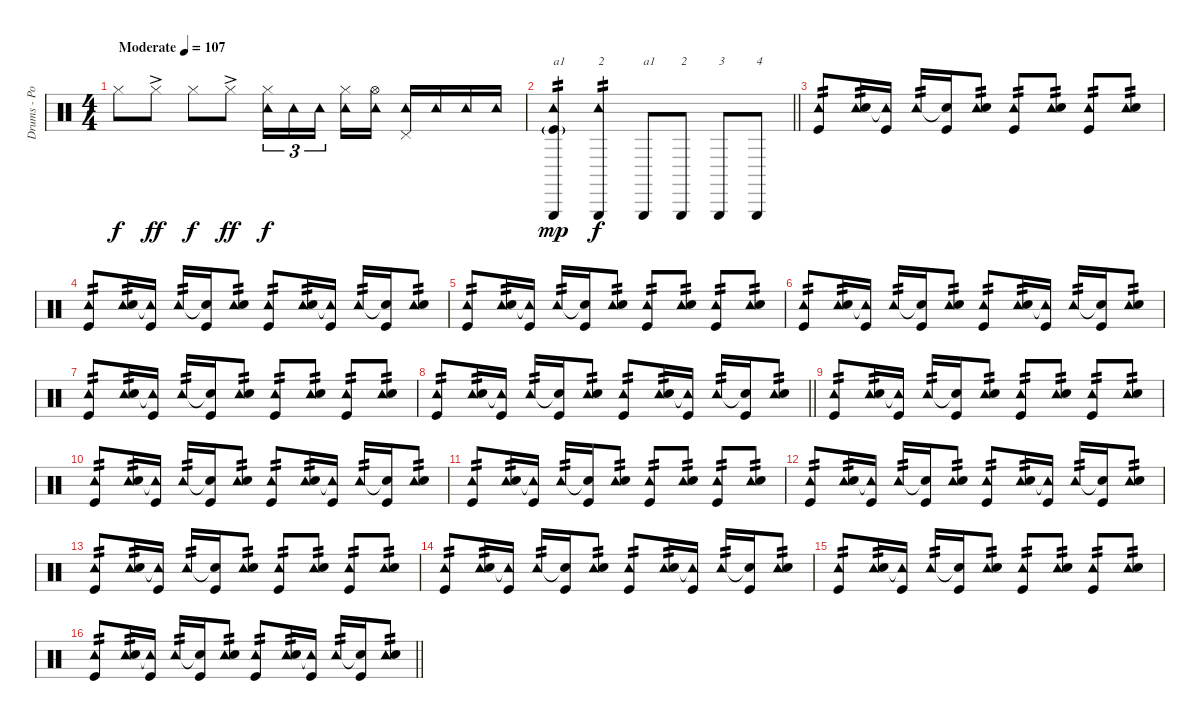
\track ("Drums - Possibly M. Shinoda" "Drums - Po") {instrument percussion}
\staff {score}
\articulation defaults
\ts (4 4)
\tempo (107 "Moderate")
\clef neutral
\ks c "Hi-Hat (closed)".8{dy f} "Hi-Hat (closed)"{ac}.8{dy ff} "Hi-Hat (closed)".8{dy f} "Hi-Hat (closed)"{ac}.8{dy ff}
("Hi-Hat (closed)" "Tambourine (hit)").16{tu (3 2) dy f} "Tambourine (hit)".16{tu (3 2)} "Tambourine (hit)".16{tu (3 2) beam splitsecondary} ("Hi-Hat (closed)" "Tambourine (hit)").16 ("Hi-Hat (open)" "Tambourine (hit)").16 ("Tambourine (hit)" "Pedal Hi-Hat (hit)").16 "Tambourine (hit)".16 "Tambourine (hit)".16 "Tambourine (hit)".16 |
\barLineRight lightlight
("Tambourine (hit)" "Triangle (hit)" "Kick (hit)"{g}).4{txt "a1" tp 2 dy mp} ("Tambourine (hit)" "Triangle (hit)").4{txt "2" tp 2 dy f} "Triangle (hit)".8{txt "a1"} "Triangle (hit)".8{txt "2"} "Triangle (hit)".8{txt "3"} "Triangle (hit)".8{txt "4"} |
("Tambourine (hit)" "Kick (hit)").8{tp 2} ("Tambourine (hit)" "Electric Snare (hit)").16{tp 2} ("Tambourine (hit)"{t} "Kick (hit)").16 "Tambourine (hit)".16{tp 2} ("Snare (hit)"{t} "Kick (hit)").16 ("Tambourine (hit)" "Electric Snare (hit)").8{tp 2} ("Tambourine (hit)" "Kick (hit)").8{tp 2} ("Tambourine (hit)" "Electric Snare (hit)").8{tp 2} ("Tambourine (hit)" "Kick (hit)").8{tp 2} ("Tambourine (hit)" "Electric Snare (hit)").8{tp 2} |
("Tambourine (hit)" "Kick (hit)").8{tp 2} ("Tambourine (hit)" "Electric Snare (hit)").16{tp 2} ("Tambourine (hit)"{t} "Kick (hit)").16 "Tambourine (hit)".16{tp 2} ("Snare (hit)"{t} "Kick (hit)").16 ("Tambourine (hit)" "Electric Snare (hit)").8{tp 2} ("Tambourine (hit)" "Kick (hit)").8{tp 2} ("Tambourine (hit)" "Electric Snare (hit)").16{tp 2} ("Tambourine (hit)"{t} "Kick (hit)").16 "Tambourine (hit)".16{tp 2} ("Snare (hit)"{t} "Kick (hit)").16 ("Tambourine (hit)" "Electric Snare (hit)").8{tp 2} |
("Tambourine (hit)" "Kick (hit)").8{tp 2} ("Tambourine (hit)" "Electric Snare (hit)").16{tp 2} ("Tambourine (hit)"{t} "Kick (hit)").16 "Tambourine (hit)".16{tp 2} ("Snare (hit)"{t} "Kick (hit)").16 ("Tambourine (hit)" "Electric Snare (hit)").8{tp 2} ("Tambourine (hit)" "Kick (hit)").8{tp 2} ("Tambourine (hit)" "Electric Snare (hit)").8{tp 2} ("Tambourine (hit)" "Kick (hit)").8{tp 2} ("Tambourine (hit)" "Electric Snare (hit)").8{tp 2} |
("Tambourine (hit)" "Kick (hit)").8{tp 2} ("Tambourine (hit)" "Electric Snare (hit)").16{tp 2} ("Tambourine (hit)"{t} "Kick (hit)").16 "Tambourine (hit)".16{tp 2} ("Snare (hit)"{t} "Kick (hit)").16 ("Tambourine (hit)" "Electric Snare (hit)").8{tp 2} ("Tambourine (hit)" "Kick (hit)").8{tp 2} ("Tambourine (hit)" "Electric Snare (hit)").16{tp 2} ("Tambourine (hit)"{t} "Kick (hit)").16 "Tambourine (hit)".16{tp 2} ("Snare (hit)"{t} "Kick (hit)").16 ("Tambourine (hit)" "Electric Snare (hit)").8{tp 2} |
("Tambourine (hit)" "Kick (hit)").8{tp 2} ("Tambourine (hit)" "Electric Snare (hit)").16{tp 2} ("Tambourine (hit)"{t} "Kick (hit)").16 "Tambourine (hit)".16{tp 2} ("Snare (hit)"{t} "Kick (hit)").16 ("Tambourine (hit)" "Electric Snare (hit)").8{tp 2} ("Tambourine (hit)" "Kick (hit)").8{tp 2} ("Tambourine (hit)" "Electric Snare (hit)").8{tp 2} ("Tambourine (hit)" "Kick (hit)").8{tp 2} ("Tambourine (hit)" "Electric Snare (hit)").8{tp 2} |
\barLineRight lightlight
("Tambourine (hit)" "Kick (hit)").8{tp 2} ("Tambourine (hit)" "Electric Snare (hit)").16{tp 2} ("Tambourine (hit)"{t} "Kick (hit)").16 "Tambourine (hit)".16{tp 2} ("Snare (hit)"{t} "Kick (hit)").16 ("Tambourine (hit)" "Electric Snare (hit)").8{tp 2} ("Tambourine (hit)" "Kick (hit)").8{tp 2} ("Tambourine (hit)" "Electric Snare (hit)").16{tp 2} ("Tambourine (hit)"{t} "Kick (hit)").16 "Tambourine (hit)".16{tp 2} ("Snare (hit)"{t} "Kick (hit)").16 ("Tambourine (hit)" "Electric Snare (hit)").8{tp 2} |
\section ("" "")
("Tambourine (hit)" "Kick (hit)").8{tp 2} ("Tambourine (hit)" "Electric Snare (hit)").16{tp 2} ("Tambourine (hit)"{t} "Kick (hit)").16 "Tambourine (hit)".16{tp 2} ("Snare (hit)"{t} "Kick (hit)").16 ("Tambourine (hit)" "Electric Snare (hit)").8{tp 2} ("Tambourine (hit)" "Kick (hit)").8{tp 2} ("Tambourine (hit)" "Electric Snare (hit)").8{tp 2} ("Tambourine (hit)" "Kick (hit)").8{tp 2} ("Tambourine (hit)" "Electric Snare (hit)").8{tp 2} |
("Tambourine (hit)" "Kick (hit)").8{tp 2} ("Tambourine (hit)" "Electric Snare (hit)").16{tp 2} ("Tambourine (hit)"{t} "Kick (hit)").16 "Tambourine (hit)".16{tp 2} ("Snare (hit)"{t} "Kick (hit)").16 ("Tambourine (hit)" "Electric Snare (hit)").8{tp 2} ("Tambourine (hit)" "Kick (hit)").8{tp 2} ("Tambourine (hit)" "Electric Snare (hit)").16{tp 2} ("Tambourine (hit)"{t} "Kick (hit)").16 "Tambourine (hit)".16{tp 2} ("Snare (hit)"{t} "Kick (hit)").16 ("Tambourine (hit)" "Electric Snare (hit)").8{tp 2} |
("Tambourine (hit)" "Kick (hit)").8{tp 2} ("Tambourine (hit)" "Electric Snare (hit)").16{tp 2} ("Tambourine (hit)"{t} "Kick (hit)").16 "Tambourine (hit)".16{tp 2} ("Snare (hit)"{t} "Kick (hit)").16 ("Tambourine (hit)" "Electric Snare (hit)").8{tp 2} ("Tambourine (hit)" "Kick (hit)").8{tp 2} ("Tambourine (hit)" "Electric Snare (hit)").8{tp 2} ("Tambourine (hit)" "Kick (hit)").8{tp 2} ("Tambourine (hit)" "Electric Snare (hit)").8{tp 2} |
("Tambourine (hit)" "Kick (hit)").8{tp 2} ("Tambourine (hit)" "Electric Snare (hit)").16{tp 2} ("Tambourine (hit)"{t} "Kick (hit)").16 "Tambourine (hit)".16{tp 2} ("Snare (hit)"{t} "Kick (hit)").16 ("Tambourine (hit)" "Electric Snare (hit)").8{tp 2} ("Tambourine (hit)" "Kick (hit)").8{tp 2} ("Tambourine (hit)" "Electric Snare (hit)").16{tp 2} ("Tambourine (hit)"{t} "Kick (hit)").16 "Tambourine (hit)".16{tp 2} ("Snare (hit)"{t} "Kick (hit)").16 ("Tambourine (hit)" "Electric Snare (hit)").8{tp 2} |
("Tambourine (hit)" "Kick (hit)").8{tp 2} ("Tambourine (hit)" "Electric Snare (hit)").16{tp 2} ("Tambourine (hit)"{t} "Kick (hit)").16 "Tambourine (hit)".16{tp 2} ("Snare (hit)"{t} "Kick (hit)").16 ("Tambourine (hit)" "Electric Snare (hit)").8{tp 2} ("Tambourine (hit)" "Kick (hit)").8{tp 2} ("Tambourine (hit)" "Electric Snare (hit)").8{tp 2} ("Tambourine (hit)" "Kick (hit)").8{tp 2} ("Tambourine (hit)" "Electric Snare (hit)").8{tp 2} |
("Tambourine (hit)" "Kick (hit)").8{tp 2} ("Tambourine (hit)" "Electric Snare (hit)").16{tp 2} ("Tambourine (hit)"{t} "Kick (hit)").16 "Tambourine (hit)".16{tp 2} ("Snare (hit)"{t} "Kick (hit)").16 ("Tambourine (hit)" "Electric Snare (hit)").8{tp 2} ("Tambourine (hit)" "Kick (hit)").8{tp 2} ("Tambourine (hit)" "Electric Snare (hit)").16{tp 2} ("Tambourine (hit)"{t} "Kick (hit)").16 "Tambourine (hit)".16{tp 2} ("Snare (hit)"{t} "Kick (hit)").16 ("Tambourine (hit)" "Electric Snare (hit)").8{tp 2} |
("Tambourine (hit)" "Kick (hit)").8{tp 2} ("Tambourine (hit)" "Electric Snare (hit)").16{tp 2} ("Tambourine (hit)"{t} "Kick (hit)").16 "Tambourine (hit)".16{tp 2} ("Snare (hit)"{t} "Kick (hit)").16 ("Tambourine (hit)" "Electric Snare (hit)").8{tp 2} ("Tambourine (hit)" "Kick (hit)").8{tp 2} ("Tambourine (hit)" "Electric Snare (hit)").8{tp 2} ("Tambourine (hit)" "Kick (hit)").8{tp 2} ("Tambourine (hit)" "Electric Snare (hit)").8{tp 2} |
\barLineRight lightlight
("Tambourine (hit)" "Kick (hit)").8{tp 2} ("Tambourine (hit)" "Electric Snare (hit)").16{tp 2} ("Tambourine (hit)"{t} "Kick (hit)").16 "Tambourine (hit)".16{tp 2} ("Snare (hit)"{t} "Kick (hit)").16 ("Tambourine (hit)" "Electric Snare (hit)").8{tp 2} ("Tambourine (hit)" "Kick (hit)").8{tp 2} ("Tambourine (hit)" "Electric Snare (hit)").16{tp 2} ("Tambourine (hit)"{t} "Kick (hit)").16 "Tambourine (hit)".16{tp 2} ("Snare (hit)"{t} "Kick (hit)").16 ("Tambourine (hit)" "Electric Snare (hit)").8{tp 2}
